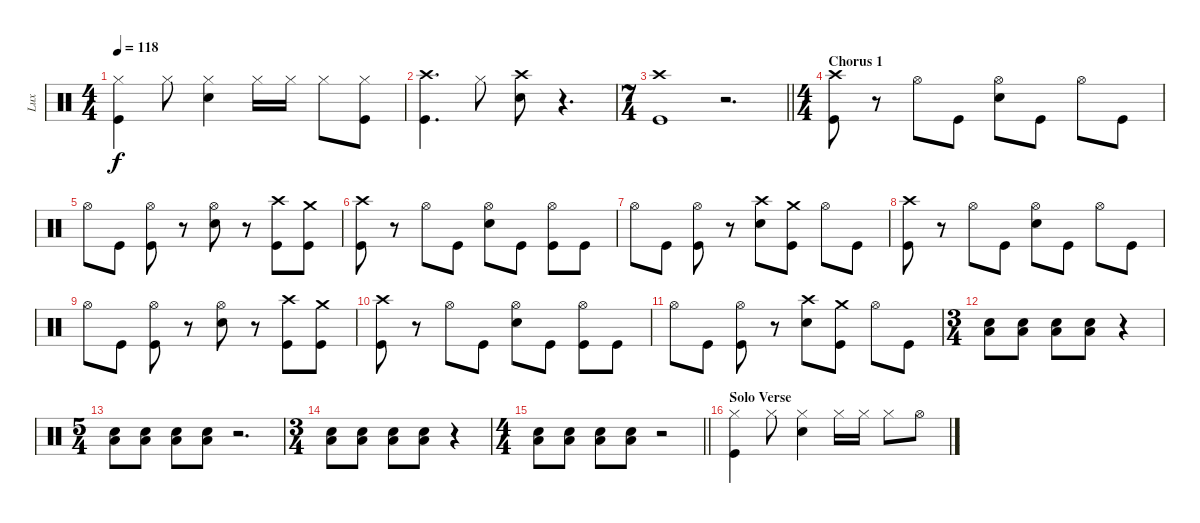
\track ("Lux" "Lux") {instrument percussion}
\staff {score}
\articulation defaults
\ts (4 4)
\tempo 118
\clef neutral
\ks c
("Hi-Hat (closed)" "Kick (hit)").4{dy f} "Hi-Hat (closed)".8 ("Hi-Hat (closed)" "Snare (hit) 2").4 "Hi-Hat (closed)".16 "Hi-Hat (closed)".16 "Hi-Hat (closed)".8 ("Hi-Hat (closed)" "Kick (hit)").8 |
("Crash high (hit)" "Kick (hit)").4{d} "Hi-Hat (closed)".8 ("Crash high (hit)" "Snare (hit) 2").8 r.4{d} |
\ts (7 4)
\barLineRight lightlight
("Crash high (hit)" "Kick (hit)").1 r.2{d} |
\ts (4 4)
\section ("" "Chorus 1")
("Crash high (hit)" "Kick (hit)").8 r.8 "Hi-Hat (open)".8 "Kick (hit)".8 ("Hi-Hat (open)" "Snare (hit) 2").8 "Kick (hit)".8 "Hi-Hat (open)".8 "Kick (hit)".8 |
"Hi-Hat (open)".8 "Kick (hit)".8 ("Hi-Hat (open)" "Kick (hit)").8 r.8 ("Hi-Hat (open)" "Snare (hit) 2").8 r.8 ("Crash high (hit)" "Kick (hit)").8 ("Crash medium (hit)" "Kick (hit)").8 |
("Crash high (hit)" "Kick (hit)").8 r.8 "Hi-Hat (open)".8 "Kick (hit)".8 ("Hi-Hat (open)" "Snare (hit) 2").8 "Kick (hit)".8 ("Hi-Hat (open)" "Kick (hit)").8 "Kick (hit)".8 |
"Hi-Hat (open)".8 "Kick (hit)".8 ("Hi-Hat (open)" "Kick (hit)").8 r.8 ("Crash high (hit)" "Snare (hit) 2").8 ("Crash medium (hit)" "Kick (hit)").8 "Hi-Hat (open)".8 "Kick (hit)".8 |
("Crash high (hit)" "Kick (hit)").8 r.8 "Hi-Hat (open)".8 "Kick (hit)".8 ("Hi-Hat (open)" "Snare (hit) 2").8 "Kick (hit)".8 "Hi-Hat (open)".8 "Kick (hit)".8 |
"Hi-Hat (open)".8 "Kick (hit)".8 ("Hi-Hat (open)" "Kick (hit)").8 r.8 ("Hi-Hat (open)" "Snare (hit) 2").8 r.8 ("Crash high (hit)" "Kick (hit)").8 ("Crash medium (hit)" "Kick (hit)").8 |
("Crash high (hit)" "Kick (hit)").8 r.8 "Hi-Hat (open)".8 "Kick (hit)".8 ("Hi-Hat (open)" "Snare (hit) 2").8 "Kick (hit)".8 ("Hi-Hat (open)" "Kick (hit)").8 "Kick (hit)".8 |
"Hi-Hat (open)".8 "Kick (hit)".8 ("Hi-Hat (open)" "Kick (hit)").8 r.8 ("Crash high (hit)" "Snare (hit) 2").8 ("Crash medium (hit)" "Kick (hit)").8 "Hi-Hat (open)".8 "Kick (hit)".8 |
\ts (3 4)
("Snare (hit) 2" "Low Tom (hit)").8 ("Snare (hit) 2" "Low Tom (hit)").8 ("Snare (hit) 2" "Low Tom (hit)").8 ("Snare (hit) 2" "Low Tom (hit)").8 r.4 |
\ts (5 4)
("Snare (hit) 2" "Low Tom (hit)").8 ("Snare (hit) 2" "Low Tom (hit)").8 ("Snare (hit) 2" "Low Tom (hit)").8 ("Snare (hit) 2" "Low Tom (hit)").8 r.2{d} |
\ts (3 4)
("Snare (hit) 2" "Low Tom (hit)").8 ("Snare (hit) 2" "Low Tom (hit)").8 ("Snare (hit) 2" "Low Tom (hit)").8 ("Snare (hit) 2" "Low Tom (hit)").8 r.4 |
\ts (4 4)
\barLineRight lightlight
("Snare (hit) 2" "Low Tom (hit)").8 ("Snare (hit) 2" "Low Tom (hit)").8 ("Snare (hit) 2" "Low Tom (hit)").8 ("Snare (hit) 2" "Low Tom (hit)").8 r.2 |
\section ("" "Solo Verse")
("Hi-Hat (closed)" "Kick (hit)").4 "Hi-Hat (closed)".8 ("Hi-Hat (closed)" "Snare (hit) 2").4 "Hi-Hat (closed)".16 "Hi-Hat (closed)".16 "Hi-Hat (closed)".8 "Hi-Hat (open)".8
